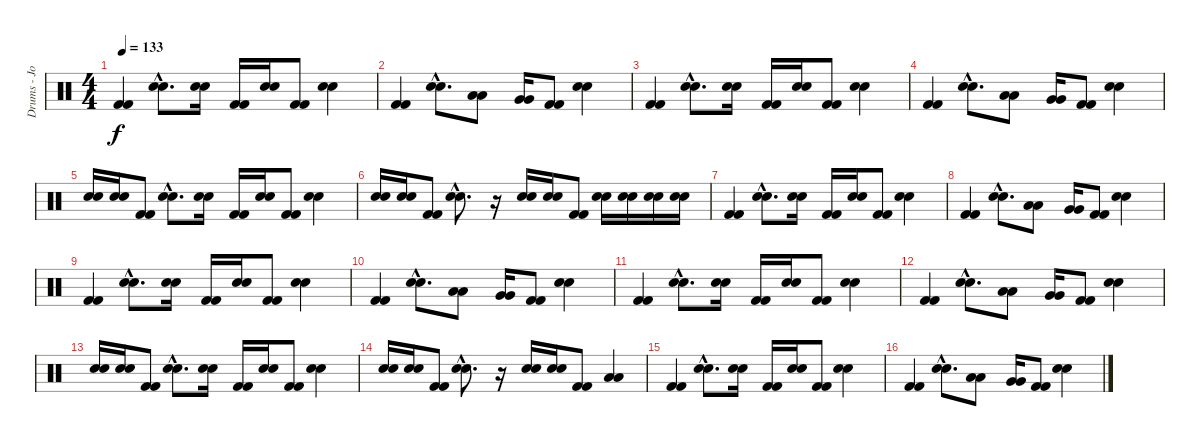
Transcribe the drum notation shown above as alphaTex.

\track ("Drums - Joe Daniels" "Drums - Jo") {instrument percussion}
\staff {score}
\articulation defaults
\ts (4 4)
\tempo 133
\clef neutral
\ks c
("Kick (hit) 2" "Kick (hit) 2").4{dy f} ("Snare (hit) 2"{hac} "Snare (hit) 2"{hac}).8{d} ("Snare (hit) 2" "Snare (hit) 2").16 ("Kick (hit) 2" "Kick (hit) 2").16 ("Snare (hit) 2" "Snare (hit) 2").16 ("Kick (hit) 2" "Kick (hit) 2").8 ("Snare (hit) 2" "Snare (hit) 2").4 |
("Kick (hit) 2" "Kick (hit) 2").4 ("Snare (hit) 2"{hac} "Snare (hit) 2"{hac}).8{d} ("Low Tom (hit)" "Low Tom (hit)").8 ("Very Low Tom (hit)" "Very Low Tom (hit)").16 ("Kick (hit) 2" "Kick (hit) 2").8 ("Snare (hit) 2" "Snare (hit) 2").4 |
("Kick (hit) 2" "Kick (hit) 2").4 ("Snare (hit) 2"{hac} "Snare (hit) 2"{hac}).8{d} ("Snare (hit) 2" "Snare (hit) 2").16 ("Kick (hit) 2" "Kick (hit) 2").16 ("Snare (hit) 2" "Snare (hit) 2").16 ("Kick (hit) 2" "Kick (hit) 2").8 ("Snare (hit) 2" "Snare (hit) 2").4 |
("Kick (hit) 2" "Kick (hit) 2").4 ("Snare (hit) 2"{hac} "Snare (hit) 2"{hac}).8{d} ("Low Tom (hit)" "Low Tom (hit)").8 ("Very Low Tom (hit)" "Very Low Tom (hit)").16 ("Kick (hit) 2" "Kick (hit) 2").8 ("Snare (hit) 2" "Snare (hit) 2").4 |
("Snare (hit) 2" "Snare (hit) 2").16 ("Snare (hit) 2" "Snare (hit) 2").16 ("Kick (hit) 2" "Kick (hit) 2").8 ("Snare (hit) 2"{hac} "Snare (hit) 2"{hac}).8{d} ("Snare (hit) 2" "Snare (hit) 2").16 ("Kick (hit) 2" "Kick (hit) 2").16 ("Snare (hit) 2" "Snare (hit) 2").16 ("Kick (hit) 2" "Kick (hit) 2").8 ("Snare (hit) 2" "Snare (hit) 2").4 |
("Snare (hit) 2" "Snare (hit) 2").16 ("Snare (hit) 2" "Snare (hit) 2").16 ("Kick (hit) 2" "Kick (hit) 2").8 ("Snare (hit) 2"{hac} "Snare (hit) 2"{hac}).8{d} r.16 ("Snare (hit) 2" "Snare (hit) 2").16 ("Snare (hit) 2" "Snare (hit) 2").16 ("Kick (hit) 2" "Kick (hit) 2").8 ("Snare (hit) 2" "Snare (hit) 2").16 ("Snare (hit) 2" "Snare (hit) 2").16 ("Snare (hit) 2" "Snare (hit) 2").16 ("Snare (hit) 2" "Snare (hit) 2").16 |
("Kick (hit) 2" "Kick (hit) 2").4 ("Snare (hit) 2"{hac} "Snare (hit) 2"{hac}).8{d} ("Snare (hit) 2" "Snare (hit) 2").16 ("Kick (hit) 2" "Kick (hit) 2").16 ("Snare (hit) 2" "Snare (hit) 2").16 ("Kick (hit) 2" "Kick (hit) 2").8 ("Snare (hit) 2" "Snare (hit) 2").4 |
("Kick (hit) 2" "Kick (hit) 2").4 ("Snare (hit) 2"{hac} "Snare (hit) 2"{hac}).8{d} ("Low Tom (hit)" "Low Tom (hit)").8 ("Very Low Tom (hit)" "Very Low Tom (hit)").16 ("Kick (hit) 2" "Kick (hit) 2").8 ("Snare (hit) 2" "Snare (hit) 2").4 |
("Kick (hit) 2" "Kick (hit) 2").4 ("Snare (hit) 2"{hac} "Snare (hit) 2"{hac}).8{d} ("Snare (hit) 2" "Snare (hit) 2").16 ("Kick (hit) 2" "Kick (hit) 2").16 ("Snare (hit) 2" "Snare (hit) 2").16 ("Kick (hit) 2" "Kick (hit) 2").8 ("Snare (hit) 2" "Snare (hit) 2").4 |
("Kick (hit) 2" "Kick (hit) 2").4 ("Snare (hit) 2"{hac} "Snare (hit) 2"{hac}).8{d} ("Low Tom (hit)" "Low Tom (hit)").8 ("Very Low Tom (hit)" "Very Low Tom (hit)").16 ("Kick (hit) 2" "Kick (hit) 2").8 ("Snare (hit) 2" "Snare (hit) 2").4 |
("Kick (hit) 2" "Kick (hit) 2").4 ("Snare (hit) 2"{hac} "Snare (hit) 2"{hac}).8{d} ("Snare (hit) 2" "Snare (hit) 2").16 ("Kick (hit) 2" "Kick (hit) 2").16 ("Snare (hit) 2" "Snare (hit) 2").16 ("Kick (hit) 2" "Kick (hit) 2").8 ("Snare (hit) 2" "Snare (hit) 2").4 |
("Kick (hit) 2" "Kick (hit) 2").4 ("Snare (hit) 2"{hac} "Snare (hit) 2"{hac}).8{d} ("Low Tom (hit)" "Low Tom (hit)").8 ("Very Low Tom (hit)" "Very Low Tom (hit)").16 ("Kick (hit) 2" "Kick (hit) 2").8 ("Snare (hit) 2" "Snare (hit) 2").4 |
("Snare (hit) 2" "Snare (hit) 2").16 ("Snare (hit) 2" "Snare (hit) 2").16 ("Kick (hit) 2" "Kick (hit) 2").8 ("Snare (hit) 2"{hac} "Snare (hit) 2"{hac}).8{d} ("Snare (hit) 2" "Snare (hit) 2").16 ("Kick (hit) 2" "Kick (hit) 2").16 ("Snare (hit) 2" "Snare (hit) 2").16 ("Kick (hit) 2" "Kick (hit) 2").8 ("Snare (hit) 2" "Snare (hit) 2").4 |
("Snare (hit) 2" "Snare (hit) 2").16 ("Snare (hit) 2" "Snare (hit) 2").16 ("Kick (hit) 2" "Kick (hit) 2").8 ("Snare (hit) 2"{hac} "Snare (hit) 2"{hac}).8{d} r.16 ("Snare (hit) 2" "Snare (hit) 2").16 ("Snare (hit) 2" "Snare (hit) 2").16 ("Kick (hit) 2" "Kick (hit) 2").8 ("Low Tom (hit)" "Low Tom (hit)").4 |
("Kick (hit) 2" "Kick (hit) 2").4 ("Snare (hit) 2"{hac} "Snare (hit) 2"{hac}).8{d} ("Snare (hit) 2" "Snare (hit) 2").16 ("Kick (hit) 2" "Kick (hit) 2").16 ("Snare (hit) 2" "Snare (hit) 2").16 ("Kick (hit) 2" "Kick (hit) 2").8 ("Snare (hit) 2" "Snare (hit) 2").4 |
("Kick (hit) 2" "Kick (hit) 2").4 ("Snare (hit) 2"{hac} "Snare (hit) 2"{hac}).8{d} ("Low Tom (hit)" "Low Tom (hit)").8 ("Very Low Tom (hit)" "Very Low Tom (hit)").16 ("Kick (hit) 2" "Kick (hit) 2").8 ("Snare (hit) 2" "Snare (hit) 2").4
